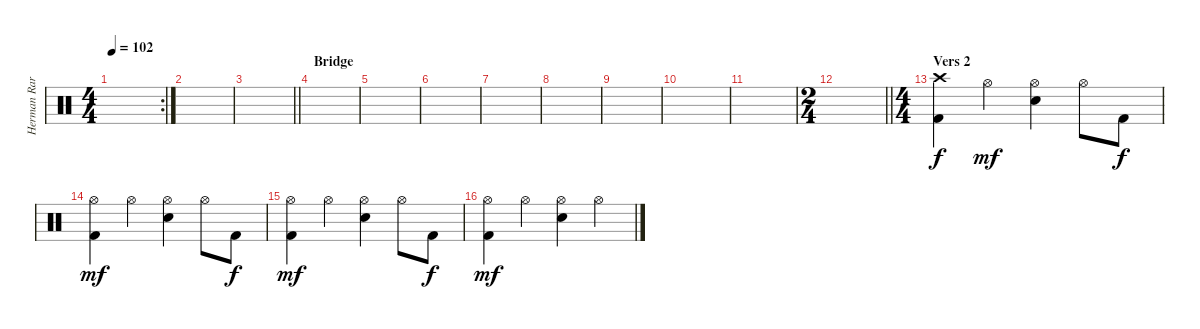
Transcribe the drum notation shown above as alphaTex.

\track ("Herman Rarebell" "Herman Rar") {instrument percussion}
\staff {score}
\articulation defaults
\rc 2
\ts (4 4)
\tempo 102
\clef neutral
\ks c
|
|
\barLineRight lightlight
|
\section ("" "Bridge")
|
|
|
|
|
|
|
|
\ts (2 4)
\barLineRight lightlight
|
\ts (4 4)
\section ("" "Vers 2")
("Crash high (hit)" "Kick (hit) 2").4 "Hi-Hat (open)".4{dy mf} ("Hi-Hat (open)" "Electric Snare (hit)").4 "Hi-Hat (open)".8 "Kick (hit) 2".8{dy f} |
("Hi-Hat (open)" "Kick (hit) 2").4{dy mf} "Hi-Hat (open)".4 ("Hi-Hat (open)" "Electric Snare (hit)").4 "Hi-Hat (open)".8 "Kick (hit) 2".8{dy f} |
("Hi-Hat (open)" "Kick (hit) 2").4{dy mf} "Hi-Hat (open)".4 ("Hi-Hat (open)" "Electric Snare (hit)").4 "Hi-Hat (open)".8 "Kick (hit) 2".8{dy f} |
("Hi-Hat (open)" "Kick (hit) 2").4{dy mf} "Hi-Hat (open)".4 ("Hi-Hat (open)" "Electric Snare (hit)").4 "Hi-Hat (open)".4
